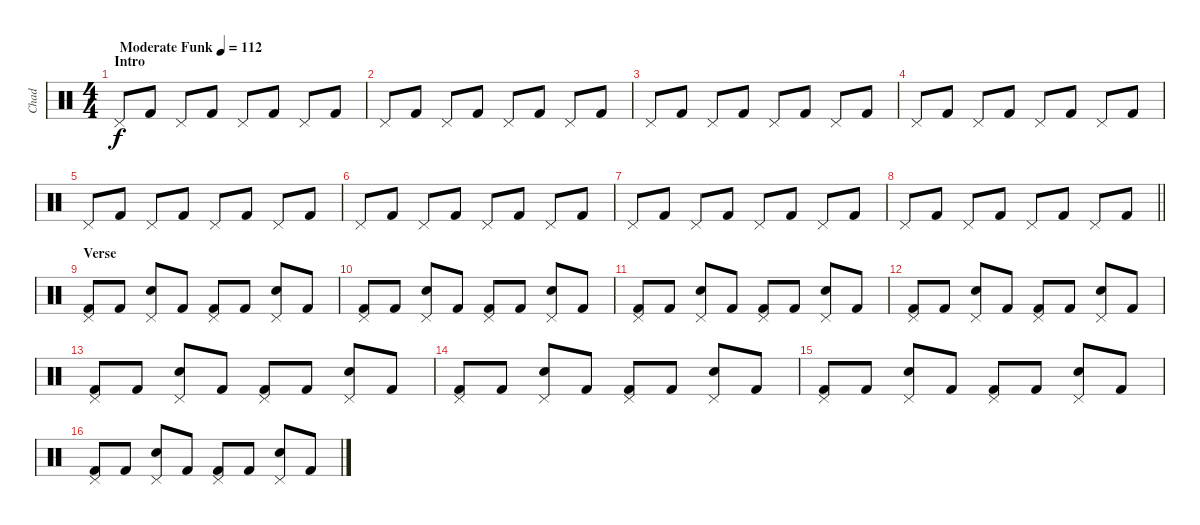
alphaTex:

\track ("Chad" "Chad") {instrument percussion}
\staff {score}
\articulation defaults
\ts (4 4)
\section ("" "Intro")
\tempo (112 "Moderate Funk")
\clef neutral
\ks c "Pedal Hi-Hat (hit)".8{dy f} "Kick (hit) 2".8 "Pedal Hi-Hat (hit)".8 "Kick (hit) 2".8 "Pedal Hi-Hat (hit)".8 "Kick (hit) 2".8 "Pedal Hi-Hat (hit)".8 "Kick (hit) 2".8
|
"Pedal Hi-Hat (hit)".8 "Kick (hit) 2".8 "Pedal Hi-Hat (hit)".8 "Kick (hit) 2".8 "Pedal Hi-Hat (hit)".8 "Kick (hit) 2".8 "Pedal Hi-Hat (hit)".8 "Kick (hit) 2".8 |
"Pedal Hi-Hat (hit)".8 "Kick (hit) 2".8 "Pedal Hi-Hat (hit)".8 "Kick (hit) 2".8 "Pedal Hi-Hat (hit)".8 "Kick (hit) 2".8 "Pedal Hi-Hat (hit)".8 "Kick (hit) 2".8 |
"Pedal Hi-Hat (hit)".8 "Kick (hit) 2".8 "Pedal Hi-Hat (hit)".8 "Kick (hit) 2".8 "Pedal Hi-Hat (hit)".8 "Kick (hit) 2".8 "Pedal Hi-Hat (hit)".8 "Kick (hit) 2".8 |
"Pedal Hi-Hat (hit)".8 "Kick (hit) 2".8 "Pedal Hi-Hat (hit)".8 "Kick (hit) 2".8 "Pedal Hi-Hat (hit)".8 "Kick (hit) 2".8 "Pedal Hi-Hat (hit)".8 "Kick (hit) 2".8 |
"Pedal Hi-Hat (hit)".8 "Kick (hit) 2".8 "Pedal Hi-Hat (hit)".8 "Kick (hit) 2".8 "Pedal Hi-Hat (hit)".8 "Kick (hit) 2".8 "Pedal Hi-Hat (hit)".8 "Kick (hit) 2".8 |
"Pedal Hi-Hat (hit)".8 "Kick (hit) 2".8 "Pedal Hi-Hat (hit)".8 "Kick (hit) 2".8 "Pedal Hi-Hat (hit)".8 "Kick (hit) 2".8 "Pedal Hi-Hat (hit)".8 "Kick (hit) 2".8 |
\barLineRight lightlight "Pedal Hi-Hat (hit)".8 "Kick (hit) 2".8 "Pedal Hi-Hat (hit)".8 "Kick (hit) 2".8 "Pedal Hi-Hat (hit)".8 "Kick (hit) 2".8 "Pedal Hi-Hat (hit)".8 "Kick (hit) 2".8
|
\section ("" "Verse")
("Kick (hit) 2" "Pedal Hi-Hat (hit)").8 "Kick (hit) 2".8 ("Snare (hit) 2" "Pedal Hi-Hat (hit)").8 "Kick (hit) 2".8 ("Kick (hit) 2" "Pedal Hi-Hat (hit)").8 "Kick (hit) 2".8 ("Snare (hit) 2" "Pedal Hi-Hat (hit)").8 "Kick (hit) 2".8 |
("Kick (hit) 2" "Pedal Hi-Hat (hit)").8 "Kick (hit) 2".8 ("Snare (hit) 2" "Pedal Hi-Hat (hit)").8 "Kick (hit) 2".8 ("Kick (hit) 2" "Pedal Hi-Hat (hit)").8 "Kick (hit) 2".8 ("Snare (hit) 2" "Pedal Hi-Hat (hit)").8 "Kick (hit) 2".8 |
("Kick (hit) 2" "Pedal Hi-Hat (hit)").8 "Kick (hit) 2".8 ("Snare (hit) 2" "Pedal Hi-Hat (hit)").8 "Kick (hit) 2".8 ("Kick (hit) 2" "Pedal Hi-Hat (hit)").8 "Kick (hit) 2".8 ("Snare (hit) 2" "Pedal Hi-Hat (hit)").8 "Kick (hit) 2".8 |
("Kick (hit) 2" "Pedal Hi-Hat (hit)").8 "Kick (hit) 2".8 ("Snare (hit) 2" "Pedal Hi-Hat (hit)").8 "Kick (hit) 2".8 ("Kick (hit) 2" "Pedal Hi-Hat (hit)").8 "Kick (hit) 2".8 ("Snare (hit) 2" "Pedal Hi-Hat (hit)").8 "Kick (hit) 2".8 |
("Kick (hit) 2" "Pedal Hi-Hat (hit)").8 "Kick (hit) 2".8 ("Snare (hit) 2" "Pedal Hi-Hat (hit)").8 "Kick (hit) 2".8 ("Kick (hit) 2" "Pedal Hi-Hat (hit)").8 "Kick (hit) 2".8 ("Snare (hit) 2" "Pedal Hi-Hat (hit)").8 "Kick (hit) 2".8 |
("Kick (hit) 2" "Pedal Hi-Hat (hit)").8 "Kick (hit) 2".8 ("Snare (hit) 2" "Pedal Hi-Hat (hit)").8 "Kick (hit) 2".8 ("Kick (hit) 2" "Pedal Hi-Hat (hit)").8 "Kick (hit) 2".8 ("Snare (hit) 2" "Pedal Hi-Hat (hit)").8 "Kick (hit) 2".8 |
("Kick (hit) 2" "Pedal Hi-Hat (hit)").8 "Kick (hit) 2".8 ("Snare (hit) 2" "Pedal Hi-Hat (hit)").8 "Kick (hit) 2".8 ("Kick (hit) 2" "Pedal Hi-Hat (hit)").8 "Kick (hit) 2".8 ("Snare (hit) 2" "Pedal Hi-Hat (hit)").8 "Kick (hit) 2".8 |
("Kick (hit) 2" "Pedal Hi-Hat (hit)").8 "Kick (hit) 2".8 ("Snare (hit) 2" "Pedal Hi-Hat (hit)").8 "Kick (hit) 2".8 ("Kick (hit) 2" "Pedal Hi-Hat (hit)").8 "Kick (hit) 2".8 ("Snare (hit) 2" "Pedal Hi-Hat (hit)").8 "Kick (hit) 2".8
